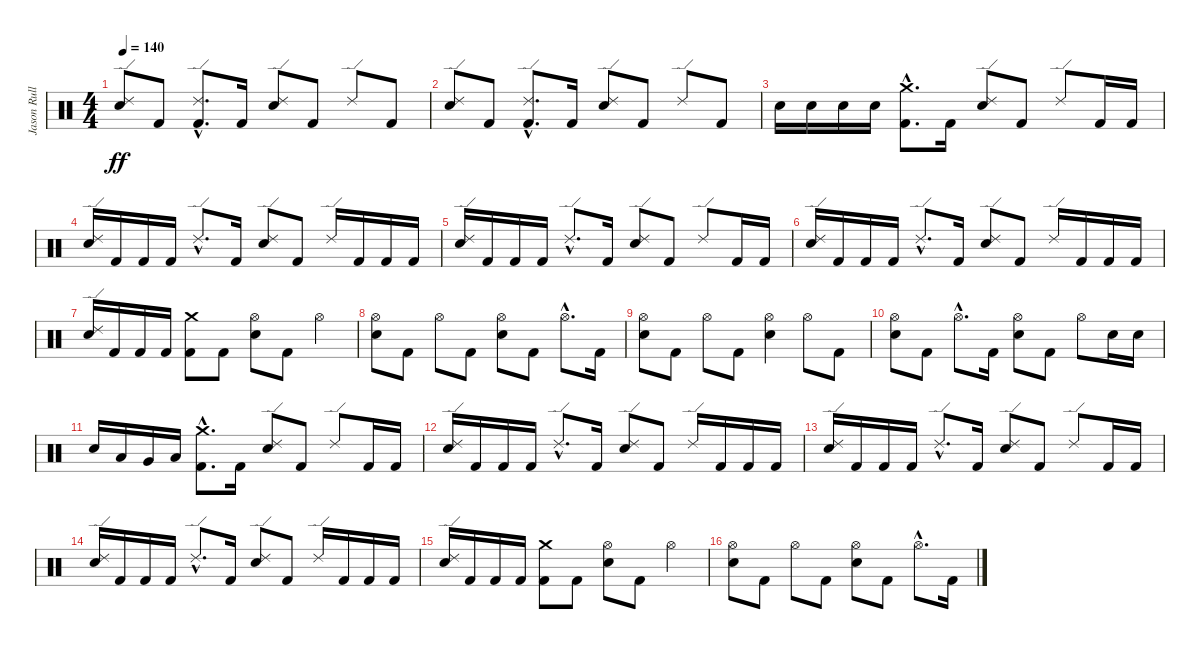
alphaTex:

\track ("Jason Rullo" "Jason Rull") {instrument percussion}
\staff {score}
\articulation defaults
\ts (4 4)
\tempo 140
\clef neutral
\ks c
("Electric Snare (hit)" "Ride (edge) 2").8{dy ff} "Kick (hit) 2".8 ("Kick (hit) 2"{hac} "Ride (edge) 2"{hac}).8{d} "Kick (hit) 2".16 ("Electric Snare (hit)" "Ride (edge) 2").8 "Kick (hit) 2".8 "Ride (edge) 2".8 "Kick (hit) 2".8 |
("Electric Snare (hit)" "Ride (edge) 2").8 "Kick (hit) 2".8 ("Kick (hit) 2"{hac} "Ride (edge) 2"{hac}).8{d} "Kick (hit) 2".16 ("Electric Snare (hit)" "Ride (edge) 2").8 "Kick (hit) 2".8 "Ride (edge) 2".8 "Kick (hit) 2".8 |
"Electric Snare (hit)".16 "Electric Snare (hit)".16 "Electric Snare (hit)".16 "Electric Snare (hit)".16 ("Crash medium (hit)"{hac} "Kick (hit) 2"{hac}).8{d} "Kick (hit) 2".16 ("Electric Snare (hit)" "Ride (edge) 2").8 "Kick (hit) 2".8 "Ride (edge) 2".8 "Kick (hit) 2".16 "Kick (hit) 2".16 |
("Electric Snare (hit)" "Ride (edge) 2").16 "Kick (hit) 2".16 "Kick (hit) 2".16 "Kick (hit) 2".16 "Ride (edge) 2"{hac}.8{d} "Kick (hit) 2".16 ("Electric Snare (hit)" "Ride (edge) 2").8 "Kick (hit) 2".8 "Ride (edge) 2".16 "Kick (hit) 2".16 "Kick (hit) 2".16 "Kick (hit) 2".16 |
("Electric Snare (hit)" "Ride (edge) 2").16 "Kick (hit) 2".16 "Kick (hit) 2".16 "Kick (hit) 2".16 "Ride (edge) 2"{hac}.8{d} "Kick (hit) 2".16 ("Electric Snare (hit)" "Ride (edge) 2").8 "Kick (hit) 2".8 "Ride (edge) 2".8 "Kick (hit) 2".16 "Kick (hit) 2".16 |
("Electric Snare (hit)" "Ride (edge) 2").16 "Kick (hit) 2".16 "Kick (hit) 2".16 "Kick (hit) 2".16 "Ride (edge) 2"{hac}.8{d} "Kick (hit) 2".16 ("Electric Snare (hit)" "Ride (edge) 2").8 "Kick (hit) 2".8 "Ride (edge) 2".16 "Kick (hit) 2".16 "Kick (hit) 2".16 "Kick (hit) 2".16 |
("Electric Snare (hit)" "Ride (edge) 2").16 "Kick (hit) 2".16 "Kick (hit) 2".16 "Kick (hit) 2".16 ("Crash medium (hit)" "Kick (hit) 2").8 "Kick (hit) 2".8 ("Electric Snare (hit)" "Hi-Hat (open)").8 "Kick (hit) 2".8 "Hi-Hat (open)".4 |
("Electric Snare (hit)" "Hi-Hat (open)").8 "Kick (hit) 2".8 "Hi-Hat (open)".8 "Kick (hit) 2".8 ("Electric Snare (hit)" "Hi-Hat (open)").8 "Kick (hit) 2".8 "Hi-Hat (open)"{hac}.8{d} "Kick (hit) 2".16 |
("Electric Snare (hit)" "Hi-Hat (open)").8 "Kick (hit) 2".8 "Hi-Hat (open)".8 "Kick (hit) 2".8 ("Electric Snare (hit)" "Hi-Hat (open)").4 "Hi-Hat (open)".8 "Kick (hit) 2".8 |
("Electric Snare (hit)" "Hi-Hat (open)").8 "Kick (hit) 2".8 "Hi-Hat (open)"{hac}.8{d} "Kick (hit) 2".16 ("Electric Snare (hit)" "Hi-Hat (open)").8 "Kick (hit) 2".8 "Hi-Hat (open)".8 "Electric Snare (hit)".16 "Electric Snare (hit)".16 |
"Electric Snare (hit)".16 "Low Tom (hit)".16 "Very Low Tom (hit)".16 "Low Floor Tom (hit)".16 ("Crash medium (hit)"{hac} "Kick (hit) 2"{hac}).8{d} "Kick (hit) 2".16 ("Electric Snare (hit)" "Ride (edge) 2").8 "Kick (hit) 2".8 "Ride (edge) 2".8 "Kick (hit) 2".16 "Kick (hit) 2".16 |
("Electric Snare (hit)" "Ride (edge) 2").16 "Kick (hit) 2".16 "Kick (hit) 2".16 "Kick (hit) 2".16 "Ride (edge) 2"{hac}.8{d} "Kick (hit) 2".16 ("Electric Snare (hit)" "Ride (edge) 2").8 "Kick (hit) 2".8 "Ride (edge) 2".16 "Kick (hit) 2".16 "Kick (hit) 2".16 "Kick (hit) 2".16 |
("Electric Snare (hit)" "Ride (edge) 2").16 "Kick (hit) 2".16 "Kick (hit) 2".16 "Kick (hit) 2".16 "Ride (edge) 2"{hac}.8{d} "Kick (hit) 2".16 ("Electric Snare (hit)" "Ride (edge) 2").8 "Kick (hit) 2".8 "Ride (edge) 2".8 "Kick (hit) 2".16 "Kick (hit) 2".16 |
("Electric Snare (hit)" "Ride (edge) 2").16 "Kick (hit) 2".16 "Kick (hit) 2".16 "Kick (hit) 2".16 "Ride (edge) 2"{hac}.8{d} "Kick (hit) 2".16 ("Electric Snare (hit)" "Ride (edge) 2").8 "Kick (hit) 2".8 "Ride (edge) 2".16 "Kick (hit) 2".16 "Kick (hit) 2".16 "Kick (hit) 2".16 |
("Electric Snare (hit)" "Ride (edge) 2").16 "Kick (hit) 2".16 "Kick (hit) 2".16 "Kick (hit) 2".16 ("Crash medium (hit)" "Kick (hit) 2").8 "Kick (hit) 2".8 ("Electric Snare (hit)" "Hi-Hat (open)").8 "Kick (hit) 2".8 "Hi-Hat (open)".4 |
("Electric Snare (hit)" "Hi-Hat (open)").8 "Kick (hit) 2".8 "Hi-Hat (open)".8 "Kick (hit) 2".8 ("Electric Snare (hit)" "Hi-Hat (open)").8 "Kick (hit) 2".8 "Hi-Hat (open)"{hac}.8{d} "Kick (hit) 2".16
